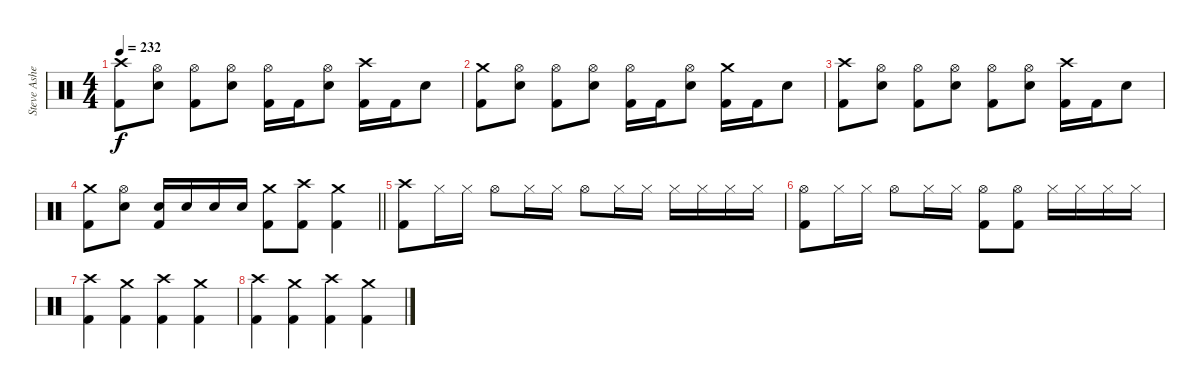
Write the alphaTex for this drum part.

\track ("Steve Asheim" "Steve Ashe") {instrument percussion}
\staff {score}
\articulation defaults
\ts (4 4)
\tempo 232
\clef neutral
\ks c
("Crash high (hit)" "Kick (hit) 2").8{dy f} ("Hi-Hat (open)" "Electric Snare (hit)").8 ("Hi-Hat (open)" "Kick (hit) 2").8 ("Hi-Hat (open)" "Electric Snare (hit)").8 ("Hi-Hat (open)" "Kick (hit) 2").16 "Kick (hit) 2".16 ("Hi-Hat (open)" "Electric Snare (hit)").8 ("Crash high (hit)" "Kick (hit) 2").16 "Kick (hit) 2".16 "Electric Snare (hit)".8 |
("Crash medium (hit)" "Kick (hit) 2").8 ("Hi-Hat (open)" "Electric Snare (hit)").8 ("Hi-Hat (open)" "Kick (hit) 2").8 ("Hi-Hat (open)" "Electric Snare (hit)").8 ("Hi-Hat (open)" "Kick (hit) 2").16 "Kick (hit) 2".16 ("Hi-Hat (open)" "Electric Snare (hit)").8 ("Crash medium (hit)" "Kick (hit) 2").16 "Kick (hit) 2".16 "Electric Snare (hit)".8 |
("Crash high (hit)" "Kick (hit) 2").8 ("Hi-Hat (open)" "Electric Snare (hit)").8 ("Hi-Hat (open)" "Kick (hit) 2").8 ("Hi-Hat (open)" "Electric Snare (hit)").8 ("Hi-Hat (open)" "Kick (hit) 2").8 ("Hi-Hat (open)" "Electric Snare (hit)").8 ("Crash high (hit)" "Kick (hit) 2").16 "Kick (hit) 2".16 "Electric Snare (hit)".8 |
\barLineRight lightlight
("Crash medium (hit)" "Kick (hit) 2").8 ("Hi-Hat (open)" "Electric Snare (hit)").8 ("Electric Snare (hit)" "Kick (hit) 2").16 "Electric Snare (hit)".16 "Electric Snare (hit)".16 "Electric Snare (hit)".16 ("Crash medium (hit)" "Kick (hit) 2").8 ("Crash high (hit)" "Kick (hit) 2").8 ("Crash medium (hit)" "Kick (hit) 2").4 |
\section ("" "")
("Crash high (hit)" "Kick (hit) 2").8 "Hi-Hat (closed)".16 "Hi-Hat (closed)".16 "Hi-Hat (open)".8 "Hi-Hat (closed)".16 "Hi-Hat (closed)".16 "Hi-Hat (open)".8 "Hi-Hat (closed)".16 "Hi-Hat (closed)".16 "Hi-Hat (closed)".16 "Hi-Hat (closed)".16 "Hi-Hat (closed)".16 "Hi-Hat (closed)".16 |
("Hi-Hat (open)" "Kick (hit) 2").8 "Hi-Hat (closed)".16 "Hi-Hat (closed)".16 "Hi-Hat (open)".8 "Hi-Hat (closed)".16 "Hi-Hat (closed)".16 ("Hi-Hat (open)" "Kick (hit) 2").8 ("Hi-Hat (open)" "Kick (hit) 2").8 "Hi-Hat (closed)".16 "Hi-Hat (closed)".16 "Hi-Hat (closed)".16 "Hi-Hat (closed)".16 |
("Crash high (hit)" "Kick (hit) 2").4 ("Crash medium (hit)" "Kick (hit) 2").4 ("Crash high (hit)" "Kick (hit) 2").4 ("Crash medium (hit)" "Kick (hit) 2").4 |
("Crash high (hit)" "Kick (hit) 2").4 ("Crash medium (hit)" "Kick (hit) 2").4 ("Crash high (hit)" "Kick (hit) 2").4 ("Crash medium (hit)" "Kick (hit) 2").4
